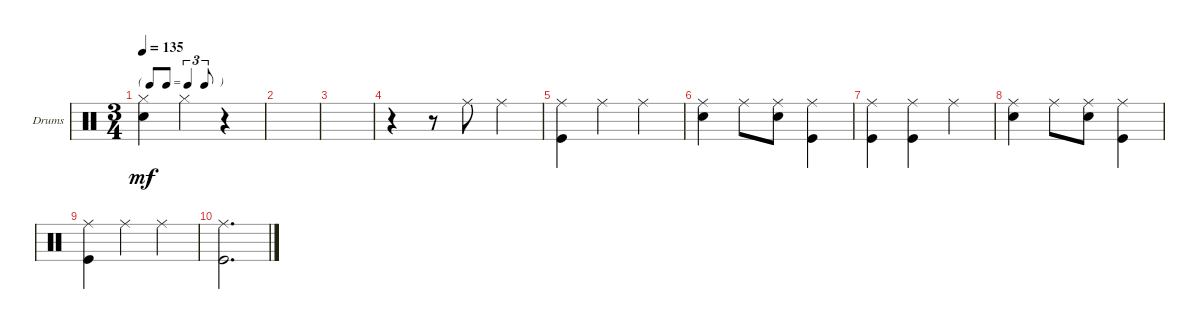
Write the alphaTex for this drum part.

\defaultSystemsLayout 4
\bracketExtendMode groupsimilarinstruments
\firstSystemTrackNameOrientation horizontal
\otherSystemsTrackNameOrientation horizontal
\track ("Drums" "Drums") {instrument percussion}
\staff {score}
\articulation defaults
\ts (3 4)
\tf triplet8th
\tempo 135
\clef neutral
\ks c
("Snare (hit) 2" "Hi-Hat (closed)").4{dy mf} "Hi-Hat (closed)".4 r.4 |
|
|
r.4 r.8 "Ride (middle)".8 "Ride (middle)".4 |
("Ride (middle)" "Kick (hit)").4 "Ride (middle)".4 "Ride (middle)".4 |
("Snare (hit) 2" "Ride (middle)").4 "Ride (middle)".8 ("Ride (middle)" "Snare (hit) 2").8 ("Ride (middle)" "Kick (hit)").4 |
("Ride (middle)" "Kick (hit)").4 ("Ride (middle)" "Kick (hit)").4 "Ride (middle)".4 |
("Snare (hit) 2" "Ride (middle)").4 "Ride (middle)".8 ("Ride (middle)" "Snare (hit) 2").8 ("Ride (middle)" "Kick (hit)").4 |
("Ride (middle)" "Kick (hit)").4 "Ride (middle)".4 "Ride (middle)".4 |
("Ride (middle)" "Kick (hit)").2{d}
